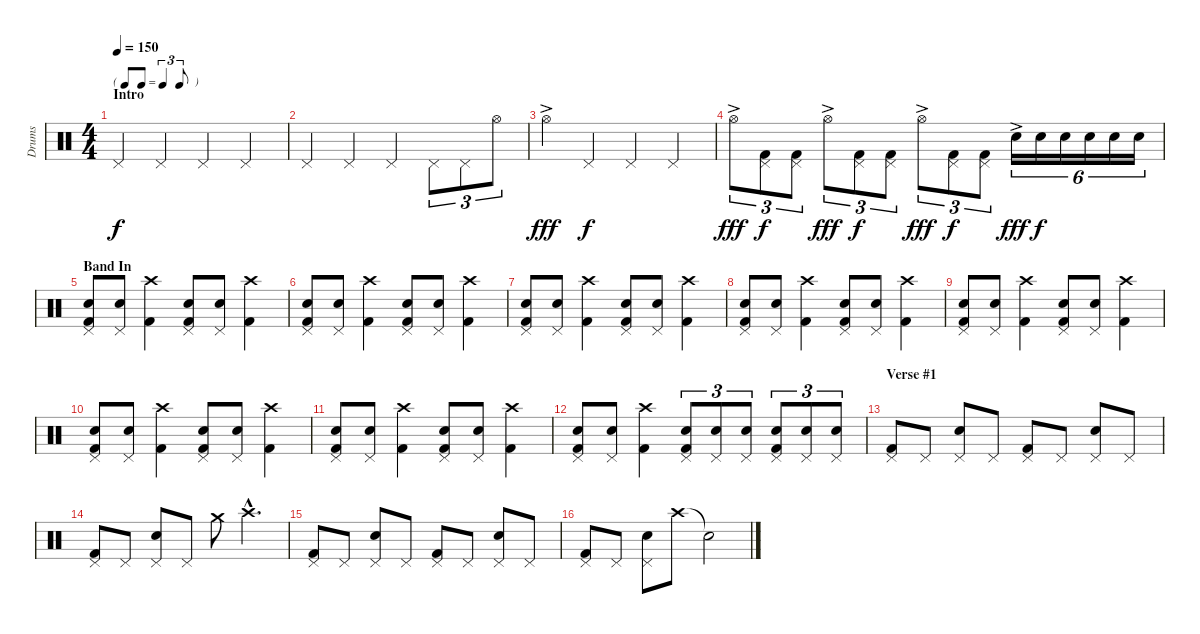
\track ("Drums" "Drums") {instrument percussion}
\staff {score}
\articulation defaults
\ts (4 4)
\tf triplet8th
\section ("" "Intro")
\tempo 150
\clef neutral
\ks c "Pedal Hi-Hat (hit)".4{dy f} "Pedal Hi-Hat (hit)".4 "Pedal Hi-Hat (hit)".4 "Pedal Hi-Hat (hit)".4
|
"Pedal Hi-Hat (hit)".4 "Pedal Hi-Hat (hit)".4 "Pedal Hi-Hat (hit)".4 "Pedal Hi-Hat (hit)".8{tu (3 2)} "Pedal Hi-Hat (hit)".8{tu (3 2)} "Hi-Hat (open)".8{tu (3 2)} |
"Hi-Hat (open)"{ac}.4{dy fff} "Pedal Hi-Hat (hit)".4{dy f} "Pedal Hi-Hat (hit)".4 "Pedal Hi-Hat (hit)".4 |
"Hi-Hat (open)"{ac}.8{tu (3 2) dy fff} ("Pedal Hi-Hat (hit)" "Kick (hit) 2").8{tu (3 2) dy f} ("Pedal Hi-Hat (hit)" "Kick (hit) 2").8{tu (3 2)} "Hi-Hat (open)"{ac}.8{tu (3 2) dy fff} ("Pedal Hi-Hat (hit)" "Kick (hit) 2").8{tu (3 2) dy f} ("Pedal Hi-Hat (hit)" "Kick (hit) 2").8{tu (3 2)} "Hi-Hat (open)"{ac}.8{tu (3 2) dy fff} ("Pedal Hi-Hat (hit)" "Kick (hit) 2").8{tu (3 2) dy f} ("Pedal Hi-Hat (hit)" "Kick (hit) 2").8{tu (3 2)} "Snare (hit) 2"{ac}.16{tu (6 4) dy fff} "Snare (hit) 2".16{tu (6 4) dy f} "Snare (hit) 2".16{tu (6 4)} "Snare (hit) 2".16{tu (6 4)} "Snare (hit) 2".16{tu (6 4)} "Snare (hit) 2".16{tu (6 4)} |
\section ("" "Band In")
("Pedal Hi-Hat (hit)" "Snare (hit) 2" "Kick (hit) 2").8 ("Pedal Hi-Hat (hit)" "Snare (hit) 2").8 ("Crash high (hit)" "Kick (hit) 2").4 ("Pedal Hi-Hat (hit)" "Snare (hit) 2" "Kick (hit) 2").8 ("Pedal Hi-Hat (hit)" "Snare (hit) 2").8 ("Crash high (hit)" "Kick (hit) 2").4 |
("Pedal Hi-Hat (hit)" "Snare (hit) 2" "Kick (hit) 2").8 ("Pedal Hi-Hat (hit)" "Snare (hit) 2").8 ("Crash high (hit)" "Kick (hit) 2").4 ("Pedal Hi-Hat (hit)" "Snare (hit) 2" "Kick (hit) 2").8 ("Pedal Hi-Hat (hit)" "Snare (hit) 2").8 ("Crash high (hit)" "Kick (hit) 2").4 |
("Pedal Hi-Hat (hit)" "Snare (hit) 2" "Kick (hit) 2").8 ("Pedal Hi-Hat (hit)" "Snare (hit) 2").8 ("Crash high (hit)" "Kick (hit) 2").4 ("Pedal Hi-Hat (hit)" "Snare (hit) 2" "Kick (hit) 2").8 ("Pedal Hi-Hat (hit)" "Snare (hit) 2").8 ("Crash high (hit)" "Kick (hit) 2").4 |
("Pedal Hi-Hat (hit)" "Snare (hit) 2" "Kick (hit) 2").8 ("Pedal Hi-Hat (hit)" "Snare (hit) 2").8 ("Crash high (hit)" "Kick (hit) 2").4 ("Pedal Hi-Hat (hit)" "Snare (hit) 2" "Kick (hit) 2").8 ("Pedal Hi-Hat (hit)" "Snare (hit) 2").8 ("Crash high (hit)" "Kick (hit) 2").4 |
("Pedal Hi-Hat (hit)" "Snare (hit) 2" "Kick (hit) 2").8 ("Pedal Hi-Hat (hit)" "Snare (hit) 2").8 ("Crash high (hit)" "Kick (hit) 2").4 ("Pedal Hi-Hat (hit)" "Snare (hit) 2" "Kick (hit) 2").8 ("Pedal Hi-Hat (hit)" "Snare (hit) 2").8 ("Crash high (hit)" "Kick (hit) 2").4 |
("Pedal Hi-Hat (hit)" "Snare (hit) 2" "Kick (hit) 2").8 ("Pedal Hi-Hat (hit)" "Snare (hit) 2").8 ("Crash high (hit)" "Kick (hit) 2").4 ("Pedal Hi-Hat (hit)" "Snare (hit) 2" "Kick (hit) 2").8 ("Pedal Hi-Hat (hit)" "Snare (hit) 2").8 ("Crash high (hit)" "Kick (hit) 2").4 |
("Pedal Hi-Hat (hit)" "Snare (hit) 2" "Kick (hit) 2").8 ("Pedal Hi-Hat (hit)" "Snare (hit) 2").8 ("Crash high (hit)" "Kick (hit) 2").4 ("Pedal Hi-Hat (hit)" "Snare (hit) 2" "Kick (hit) 2").8 ("Pedal Hi-Hat (hit)" "Snare (hit) 2").8 ("Crash high (hit)" "Kick (hit) 2").4 |
("Pedal Hi-Hat (hit)" "Snare (hit) 2" "Kick (hit) 2").8 ("Pedal Hi-Hat (hit)" "Snare (hit) 2").8 ("Crash high (hit)" "Kick (hit) 2").4 ("Pedal Hi-Hat (hit)" "Snare (hit) 2" "Kick (hit) 2").8{tu (3 2)} ("Pedal Hi-Hat (hit)" "Electric Snare (hit)").8{tu (3 2)} ("Pedal Hi-Hat (hit)" "Snare (hit) 2").8{tu (3 2)} ("Pedal Hi-Hat (hit)" "Snare (hit) 2" "Kick (hit) 2").8{tu (3 2)} ("Pedal Hi-Hat (hit)" "Electric Snare (hit)").8{tu (3 2)} ("Pedal Hi-Hat (hit)" "Snare (hit) 2").8{tu (3 2)} |
\section ("" "Verse #1")
("Pedal Hi-Hat (hit)" "Kick (hit) 2").8 "Pedal Hi-Hat (hit)".8 ("Pedal Hi-Hat (hit)" "Snare (hit) 2").8 "Pedal Hi-Hat (hit)".8 ("Pedal Hi-Hat (hit)" "Kick (hit) 2").8 "Pedal Hi-Hat (hit)".8 ("Pedal Hi-Hat (hit)" "Snare (hit) 2").8 "Pedal Hi-Hat (hit)".8 |
("Pedal Hi-Hat (hit)" "Kick (hit) 2").8 "Pedal Hi-Hat (hit)".8 ("Pedal Hi-Hat (hit)" "Snare (hit) 2").8 "Pedal Hi-Hat (hit)".8 "Crash medium (hit)".8 "Crash high (hit)"{hac}.4{d} |
("Pedal Hi-Hat (hit)" "Kick (hit) 2").8 "Pedal Hi-Hat (hit)".8 ("Pedal Hi-Hat (hit)" "Snare (hit) 2").8 "Pedal Hi-Hat (hit)".8 ("Pedal Hi-Hat (hit)" "Kick (hit) 2").8 "Pedal Hi-Hat (hit)".8 ("Pedal Hi-Hat (hit)" "Snare (hit) 2").8 "Pedal Hi-Hat (hit)".8 |
("Pedal Hi-Hat (hit)" "Kick (hit) 2").8 "Pedal Hi-Hat (hit)".8 ("Pedal Hi-Hat (hit)" "Snare (hit) 2").8 "Crash high (hit)".8 "Snare (hit)"{t}.2
